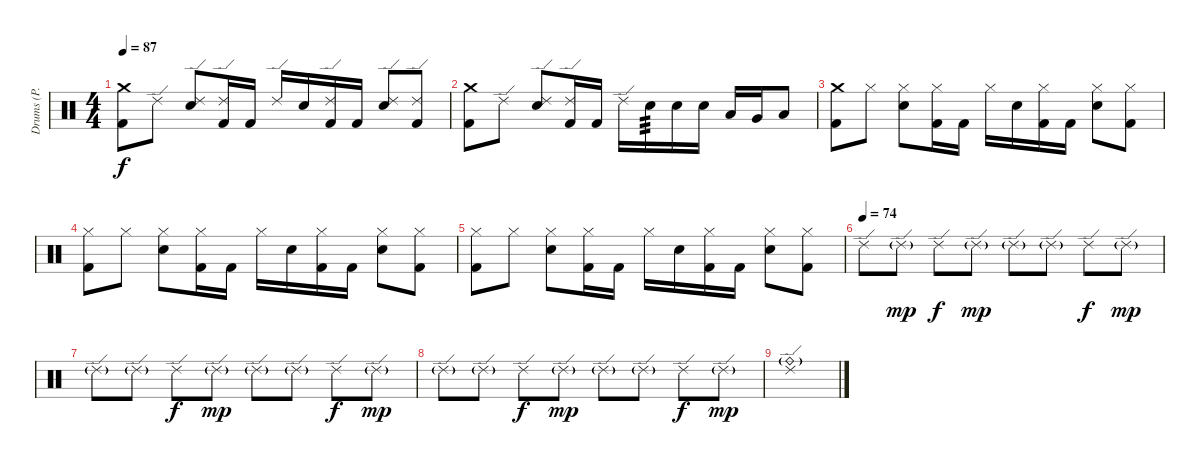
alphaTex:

\track ("Drums (P. Selway)" "Drums (P. ") {instrument percussion}
\staff {score}
\articulation defaults
\ts (4 4)
\tempo 87
\clef neutral
\ks c
("Crash medium (hit)" "Kick (hit) 2").8{dy f} "Ride (edge) 2".8 ("Ride (edge) 2" "Electric Snare (hit)").8 ("Ride (edge) 2" "Kick (hit) 2").16 "Kick (hit) 2".16 "Ride (edge) 2".16 "Electric Snare (hit)".16 ("Ride (edge) 2" "Kick (hit) 2").16 "Kick (hit) 2".16 ("Ride (edge) 2" "Electric Snare (hit)").8 ("Ride (edge) 2" "Kick (hit) 2").8 |
("Crash medium (hit)" "Kick (hit) 2").8 "Ride (edge) 2".8 ("Ride (edge) 2" "Electric Snare (hit)").8 ("Ride (edge) 2" "Kick (hit) 2").16 "Kick (hit) 2".16 "Ride (edge) 2".16 "Electric Snare (hit)".16{tp 3} "Electric Snare (hit)".16 "Electric Snare (hit)".16 "Low Tom (hit)".16 "Very Low Tom (hit)".16 "Low Floor Tom (hit)".8 |
("Crash medium (hit)" "Kick (hit) 2").8 "Hi-Hat (closed)".8 ("Hi-Hat (closed)" "Electric Snare (hit)").8 ("Hi-Hat (closed)" "Kick (hit) 2").16 "Kick (hit) 2".16 "Hi-Hat (closed)".16 "Electric Snare (hit)".16 ("Hi-Hat (closed)" "Kick (hit) 2").16 "Kick (hit) 2".16 ("Hi-Hat (closed)" "Electric Snare (hit)").8 ("Hi-Hat (closed)" "Kick (hit) 2").8 |
("Hi-Hat (closed)" "Kick (hit) 2").8 "Hi-Hat (closed)".8 ("Hi-Hat (closed)" "Electric Snare (hit)").8 ("Hi-Hat (closed)" "Kick (hit) 2").16 "Kick (hit) 2".16 "Hi-Hat (closed)".16 "Electric Snare (hit)".16 ("Hi-Hat (closed)" "Kick (hit) 2").16 "Kick (hit) 2".16 ("Hi-Hat (closed)" "Electric Snare (hit)").8 ("Hi-Hat (closed)" "Kick (hit) 2").8 |
("Hi-Hat (closed)" "Kick (hit) 2").8 "Hi-Hat (closed)".8 ("Hi-Hat (closed)" "Electric Snare (hit)").8 ("Hi-Hat (closed)" "Kick (hit) 2").16 "Kick (hit) 2".16 "Hi-Hat (closed)".16 "Electric Snare (hit)".16 ("Hi-Hat (closed)" "Kick (hit) 2").16 "Kick (hit) 2".16 ("Hi-Hat (closed)" "Electric Snare (hit)").8 ("Hi-Hat (closed)" "Kick (hit) 2").8 |
\tempo (74)
"Ride (edge) 2".8 "Ride (edge) 2"{g}.8{dy mp} "Ride (edge) 2".8{dy f} "Ride (edge) 2"{g}.8{dy mp} "Ride (edge) 2"{g}.8 "Ride (edge) 2"{g}.8 "Ride (edge) 2".8{dy f} "Ride (edge) 2"{g}.8{dy mp} |
"Ride (edge) 2"{g}.8 "Ride (edge) 2"{g}.8 "Ride (edge) 2".8{dy f} "Ride (edge) 2"{g}.8{dy mp} "Ride (edge) 2"{g}.8 "Ride (edge) 2"{g}.8 "Ride (edge) 2".8{dy f} "Ride (edge) 2"{g}.8{dy mp} |
"Ride (edge) 2"{g}.8 "Ride (edge) 2"{g}.8 "Ride (edge) 2".8{dy f} "Ride (edge) 2"{g}.8{dy mp} "Ride (edge) 2"{g}.8 "Ride (edge) 2"{g}.8 "Ride (edge) 2".8{dy f} "Ride (edge) 2"{g}.8{dy mp} |
("Ride (bell)"{g} "Ride (edge) 2").1
